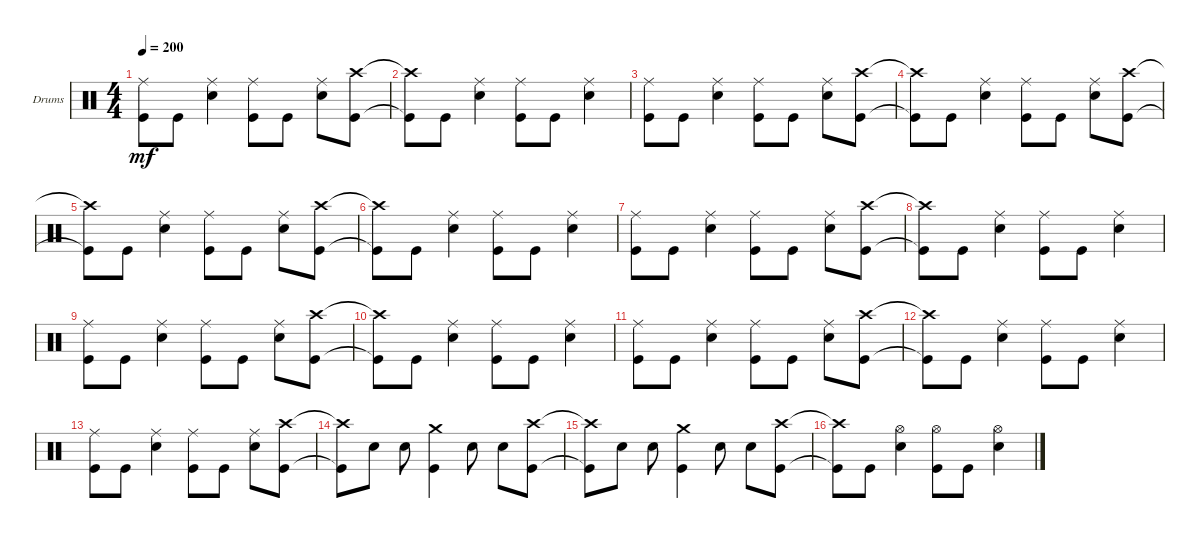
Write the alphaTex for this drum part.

\bracketExtendMode groupsimilarinstruments
\firstSystemTrackNameOrientation horizontal
\otherSystemsTrackNameOrientation horizontal
\track ("Drums" "Drums") {instrument percussion}
\staff {score}
\articulation defaults
\ts (4 4)
\tempo 200
\clef neutral
\ks c
("Kick (hit)" "Ride (middle)").8{dy mf} "Kick (hit)".8 ("Snare (hit) 2" "Ride (middle)").4 ("Kick (hit)" "Ride (middle)").8 "Kick (hit)".8 ("Snare (hit) 2" "Ride (middle)").8 ("Kick (hit)" "Crash high (hit)").8 |
("Kick (hit)"{t} "Crash high (hit)"{t}).8 "Kick (hit)".8 ("Snare (hit) 2" "Ride (middle)").4 ("Kick (hit)" "Ride (middle)").8 "Kick (hit)".8 ("Snare (hit) 2" "Ride (middle)").4 |
("Kick (hit)" "Ride (middle)").8 "Kick (hit)".8 ("Snare (hit) 2" "Ride (middle)").4 ("Kick (hit)" "Ride (middle)").8 "Kick (hit)".8 ("Snare (hit) 2" "Ride (middle)").8 ("Kick (hit)" "Crash high (hit)").8 |
("Kick (hit)"{t} "Crash high (hit)"{t}).8 "Kick (hit)".8 ("Snare (hit) 2" "Ride (middle)").4 ("Kick (hit)" "Ride (middle)").8 "Kick (hit)".8 ("Snare (hit) 2" "Ride (middle)").8 ("Kick (hit)" "Crash high (hit)").8 |
("Kick (hit)"{t} "Crash high (hit)"{t}).8 "Kick (hit)".8 ("Snare (hit) 2" "Ride (middle)").4 ("Kick (hit)" "Ride (middle)").8 "Kick (hit)".8 ("Snare (hit) 2" "Ride (middle)").8 ("Kick (hit)" "Crash high (hit)").8 |
("Kick (hit)"{t} "Crash high (hit)"{t}).8 "Kick (hit)".8 ("Snare (hit) 2" "Ride (middle)").4 ("Kick (hit)" "Ride (middle)").8 "Kick (hit)".8 ("Snare (hit) 2" "Ride (middle)").4 |
("Kick (hit)" "Ride (middle)").8 "Kick (hit)".8 ("Snare (hit) 2" "Ride (middle)").4 ("Kick (hit)" "Ride (middle)").8 "Kick (hit)".8 ("Snare (hit) 2" "Ride (middle)").8 ("Kick (hit)" "Crash high (hit)").8 |
("Kick (hit)"{t} "Crash high (hit)"{t}).8 "Kick (hit)".8 ("Snare (hit) 2" "Ride (middle)").4 ("Kick (hit)" "Ride (middle)").8 "Kick (hit)".8 ("Snare (hit) 2" "Ride (middle)").4 |
("Kick (hit)" "Ride (middle)").8 "Kick (hit)".8 ("Snare (hit) 2" "Ride (middle)").4 ("Kick (hit)" "Ride (middle)").8 "Kick (hit)".8 ("Snare (hit) 2" "Ride (middle)").8 ("Kick (hit)" "Crash high (hit)").8 |
("Kick (hit)"{t} "Crash high (hit)"{t}).8 "Kick (hit)".8 ("Snare (hit) 2" "Ride (middle)").4 ("Kick (hit)" "Ride (middle)").8 "Kick (hit)".8 ("Snare (hit) 2" "Ride (middle)").4 |
("Kick (hit)" "Ride (middle)").8 "Kick (hit)".8 ("Snare (hit) 2" "Ride (middle)").4 ("Kick (hit)" "Ride (middle)").8 "Kick (hit)".8 ("Snare (hit) 2" "Ride (middle)").8 ("Kick (hit)" "Crash high (hit)").8 |
("Kick (hit)"{t} "Crash high (hit)"{t}).8 "Kick (hit)".8 ("Snare (hit) 2" "Ride (middle)").4 ("Kick (hit)" "Ride (middle)").8 "Kick (hit)".8 ("Snare (hit) 2" "Ride (middle)").4 |
("Kick (hit)" "Ride (middle)").8 "Kick (hit)".8 ("Snare (hit) 2" "Ride (middle)").4 ("Kick (hit)" "Ride (middle)").8 "Kick (hit)".8 ("Snare (hit) 2" "Ride (middle)").8 ("Kick (hit)" "Crash high (hit)").8 |
("Kick (hit)"{t} "Crash high (hit)"{t}).8 "Snare (hit) 2".8 "Snare (hit) 2".8 ("Kick (hit)" "Crash medium (hit)").4 "Snare (hit) 2".8 "Snare (hit) 2".8 ("Kick (hit)" "Crash high (hit)").8 |
("Kick (hit)"{t} "Crash high (hit)"{t}).8 "Snare (hit) 2".8 "Snare (hit) 2".8 ("Kick (hit)" "Crash medium (hit)").4 "Snare (hit) 2".8 "Snare (hit) 2".8 ("Kick (hit)" "Crash high (hit)").8 |
("Kick (hit)"{t} "Crash high (hit)"{t}).8 "Kick (hit)".8 ("Snare (hit) 2" "Hi-Hat (open)").4 ("Kick (hit)" "Hi-Hat (open)").8 "Kick (hit)".8 ("Snare (hit) 2" "Hi-Hat (open)").4
